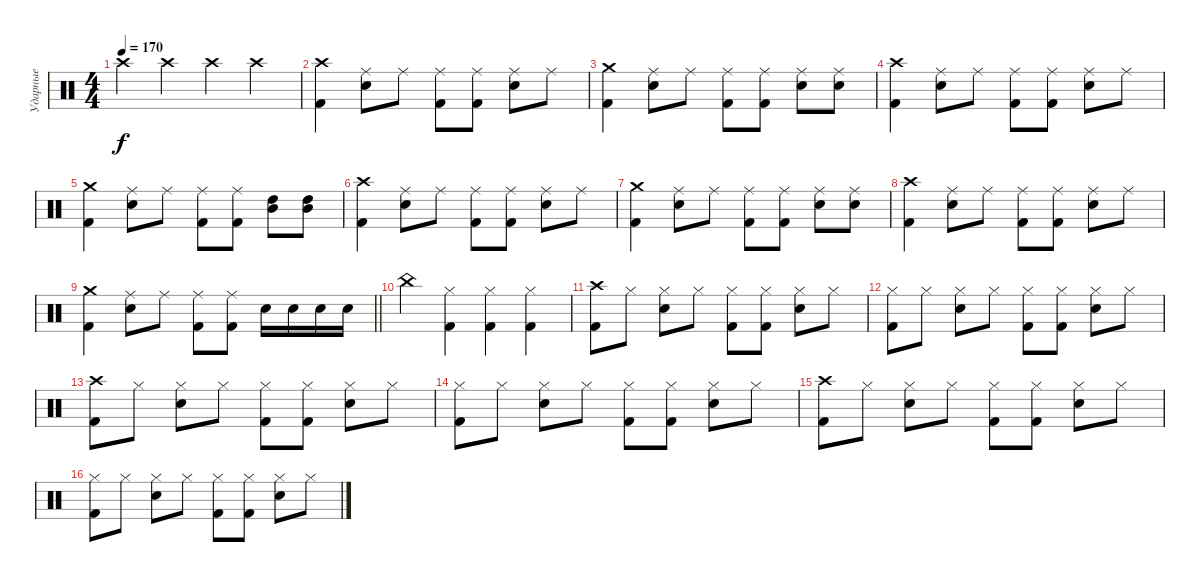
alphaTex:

\track ("Ударные" "Ударные") {instrument percussion}
\staff {score}
\articulation defaults
\ts (4 4)
\tempo 170
\clef neutral
\ks c "Crash high (hit)".4{dy f} "Crash high (hit)".4 "Crash high (hit)".4 "Crash high (hit)".4
|
("Crash high (hit)" "Kick (hit) 2").4 ("Ride (middle)" "Electric Snare (hit)").8 "Ride (middle)".8 ("Ride (middle)" "Kick (hit) 2").8 ("Ride (middle)" "Kick (hit) 2").8 ("Ride (middle)" "Electric Snare (hit)").8 "Ride (middle)".8 |
("Crash medium (hit)" "Kick (hit) 2").4 ("Ride (middle)" "Electric Snare (hit)").8 "Ride (middle)".8 ("Ride (middle)" "Kick (hit) 2").8 ("Ride (middle)" "Kick (hit) 2").8 ("Ride (middle)" "Electric Snare (hit)").8 ("Ride (middle)" "Electric Snare (hit)").8 |
("Crash high (hit)" "Kick (hit) 2").4 ("Ride (middle)" "Electric Snare (hit)").8 "Ride (middle)".8 ("Ride (middle)" "Kick (hit) 2").8 ("Ride (middle)" "Kick (hit) 2").8 ("Ride (middle)" "Electric Snare (hit)").8 "Ride (middle)".8 |
("Crash medium (hit)" "Kick (hit) 2").4 ("Ride (middle)" "Electric Snare (hit)").8 "Ride (middle)".8 ("Ride (middle)" "Kick (hit) 2").8 ("Ride (middle)" "Kick (hit) 2").8 ("Mid Tom (hit)" "High Tom (hit)").8 ("Mid Tom (hit)" "High Tom (hit)").8 |
("Crash high (hit)" "Kick (hit) 2").4 ("Ride (middle)" "Electric Snare (hit)").8 "Ride (middle)".8 ("Ride (middle)" "Kick (hit) 2").8 ("Ride (middle)" "Kick (hit) 2").8 ("Ride (middle)" "Electric Snare (hit)").8 "Ride (middle)".8 |
("Crash medium (hit)" "Kick (hit) 2").4 ("Ride (middle)" "Electric Snare (hit)").8 "Ride (middle)".8 ("Ride (middle)" "Kick (hit) 2").8 ("Ride (middle)" "Kick (hit) 2").8 ("Ride (middle)" "Electric Snare (hit)").8 ("Ride (middle)" "Electric Snare (hit)").8 |
("Crash high (hit)" "Kick (hit) 2").4 ("Ride (middle)" "Electric Snare (hit)").8 "Ride (middle)".8 ("Ride (middle)" "Kick (hit) 2").8 ("Ride (middle)" "Kick (hit) 2").8 ("Ride (middle)" "Electric Snare (hit)").8 "Ride (middle)".8 |
\barLineRight lightlight
("Crash medium (hit)" "Kick (hit) 2").4 ("Ride (middle)" "Electric Snare (hit)").8 "Ride (middle)".8 ("Ride (middle)" "Kick (hit) 2").8 ("Ride (middle)" "Kick (hit) 2").8 "Electric Snare (hit)".16 "Electric Snare (hit)".16 "Electric Snare (hit)".16 "Electric Snare (hit)".16 |
"China (hit)".4 ("Hi-Hat (closed)" "Kick (hit) 2").4 ("Hi-Hat (closed)" "Kick (hit) 2").4 ("Hi-Hat (closed)" "Kick (hit) 2").4 |
("Crash high (hit)" "Kick (hit) 2").8 "Hi-Hat (closed)".8 ("Hi-Hat (closed)" "Electric Snare (hit)").8 "Hi-Hat (closed)".8 ("Hi-Hat (closed)" "Kick (hit) 2").8 ("Hi-Hat (closed)" "Kick (hit) 2").8 ("Hi-Hat (closed)" "Electric Snare (hit)").8 "Hi-Hat (closed)".8 |
("Hi-Hat (closed)" "Kick (hit) 2").8 "Hi-Hat (closed)".8 ("Hi-Hat (closed)" "Electric Snare (hit)").8 "Hi-Hat (closed)".8 ("Hi-Hat (closed)" "Kick (hit) 2").8 ("Hi-Hat (closed)" "Kick (hit) 2").8 ("Hi-Hat (closed)" "Electric Snare (hit)").8 "Hi-Hat (closed)".8 |
("Crash high (hit)" "Kick (hit) 2").8 "Hi-Hat (closed)".8 ("Hi-Hat (closed)" "Electric Snare (hit)").8 "Hi-Hat (closed)".8 ("Hi-Hat (closed)" "Kick (hit) 2").8 ("Hi-Hat (closed)" "Kick (hit) 2").8 ("Hi-Hat (closed)" "Electric Snare (hit)").8 "Hi-Hat (closed)".8 |
("Hi-Hat (closed)" "Kick (hit) 2").8 "Hi-Hat (closed)".8 ("Hi-Hat (closed)" "Electric Snare (hit)").8 "Hi-Hat (closed)".8 ("Hi-Hat (closed)" "Kick (hit) 2").8 ("Hi-Hat (closed)" "Kick (hit) 2").8 ("Hi-Hat (closed)" "Electric Snare (hit)").8 "Hi-Hat (closed)".8 |
("Crash high (hit)" "Kick (hit) 2").8 "Hi-Hat (closed)".8 ("Hi-Hat (closed)" "Electric Snare (hit)").8 "Hi-Hat (closed)".8 ("Hi-Hat (closed)" "Kick (hit) 2").8 ("Hi-Hat (closed)" "Kick (hit) 2").8 ("Hi-Hat (closed)" "Electric Snare (hit)").8 "Hi-Hat (closed)".8 |
("Hi-Hat (closed)" "Kick (hit) 2").8 "Hi-Hat (closed)".8 ("Hi-Hat (closed)" "Electric Snare (hit)").8 "Hi-Hat (closed)".8 ("Hi-Hat (closed)" "Kick (hit) 2").8 ("Hi-Hat (closed)" "Kick (hit) 2").8 ("Hi-Hat (closed)" "Electric Snare (hit)").8 "Hi-Hat (closed)".8
